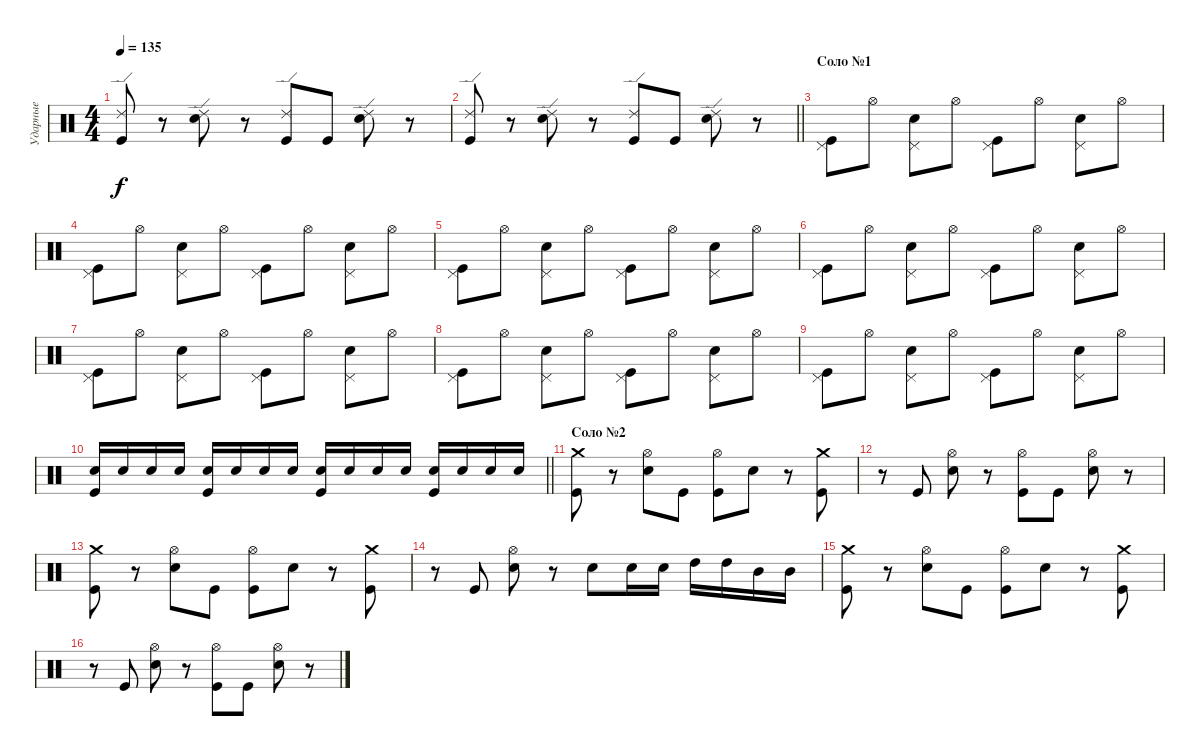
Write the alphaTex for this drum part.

\track ("Ударные" "Ударные") {instrument percussion}
\staff {score}
\articulation defaults
\ts (4 4)
\tempo 135
\clef neutral
\ks c
("Ride (edge) 2" "Kick (hit)").8{dy f} r.8 ("Ride (edge) 2" "Electric Snare (hit)").8 r.8 ("Ride (edge) 2" "Kick (hit)").8 "Kick (hit)".8 ("Ride (edge) 2" "Electric Snare (hit)").8 r.8 |
\barLineRight lightlight
("Ride (edge) 2" "Kick (hit)").8 r.8 ("Ride (edge) 2" "Electric Snare (hit)").8 r.8 ("Ride (edge) 2" "Kick (hit)").8 "Kick (hit)".8 ("Ride (edge) 2" "Electric Snare (hit)").8 r.8 |
\section ("" "Соло №1")
("Pedal Hi-Hat (hit)" "Kick (hit)").8 "Hi-Hat (open)".8 ("Pedal Hi-Hat (hit)" "Electric Snare (hit)").8 "Hi-Hat (open)".8 ("Pedal Hi-Hat (hit)" "Kick (hit)").8 "Hi-Hat (open)".8 ("Pedal Hi-Hat (hit)" "Electric Snare (hit)").8 "Hi-Hat (open)".8 |
("Pedal Hi-Hat (hit)" "Kick (hit)").8 "Hi-Hat (open)".8 ("Pedal Hi-Hat (hit)" "Electric Snare (hit)").8 "Hi-Hat (open)".8 ("Pedal Hi-Hat (hit)" "Kick (hit)").8 "Hi-Hat (open)".8 ("Pedal Hi-Hat (hit)" "Electric Snare (hit)").8 "Hi-Hat (open)".8 |
("Pedal Hi-Hat (hit)" "Kick (hit)").8 "Hi-Hat (open)".8 ("Pedal Hi-Hat (hit)" "Electric Snare (hit)").8 "Hi-Hat (open)".8 ("Pedal Hi-Hat (hit)" "Kick (hit)").8 "Hi-Hat (open)".8 ("Pedal Hi-Hat (hit)" "Electric Snare (hit)").8 "Hi-Hat (open)".8 |
("Pedal Hi-Hat (hit)" "Kick (hit)").8 "Hi-Hat (open)".8 ("Pedal Hi-Hat (hit)" "Electric Snare (hit)").8 "Hi-Hat (open)".8 ("Pedal Hi-Hat (hit)" "Kick (hit)").8 "Hi-Hat (open)".8 ("Pedal Hi-Hat (hit)" "Electric Snare (hit)").8 "Hi-Hat (open)".8 |
("Pedal Hi-Hat (hit)" "Kick (hit)").8 "Hi-Hat (open)".8 ("Pedal Hi-Hat (hit)" "Electric Snare (hit)").8 "Hi-Hat (open)".8 ("Pedal Hi-Hat (hit)" "Kick (hit)").8 "Hi-Hat (open)".8 ("Pedal Hi-Hat (hit)" "Electric Snare (hit)").8 "Hi-Hat (open)".8 |
("Pedal Hi-Hat (hit)" "Kick (hit)").8 "Hi-Hat (open)".8 ("Pedal Hi-Hat (hit)" "Electric Snare (hit)").8 "Hi-Hat (open)".8 ("Pedal Hi-Hat (hit)" "Kick (hit)").8 "Hi-Hat (open)".8 ("Pedal Hi-Hat (hit)" "Electric Snare (hit)").8 "Hi-Hat (open)".8 |
("Pedal Hi-Hat (hit)" "Kick (hit)").8 "Hi-Hat (open)".8 ("Pedal Hi-Hat (hit)" "Electric Snare (hit)").8 "Hi-Hat (open)".8 ("Pedal Hi-Hat (hit)" "Kick (hit)").8 "Hi-Hat (open)".8 ("Pedal Hi-Hat (hit)" "Electric Snare (hit)").8 "Hi-Hat (open)".8 |
\barLineRight lightlight
("Electric Snare (hit)" "Kick (hit)").16 "Electric Snare (hit)".16 "Electric Snare (hit)".16 "Electric Snare (hit)".16 ("Electric Snare (hit)" "Kick (hit)").16 "Electric Snare (hit)".16 "Electric Snare (hit)".16 "Electric Snare (hit)".16 ("Electric Snare (hit)" "Kick (hit)").16 "Electric Snare (hit)".16 "Electric Snare (hit)".16 "Electric Snare (hit)".16 ("Electric Snare (hit)" "Kick (hit)").16 "Electric Snare (hit)".16 "Electric Snare (hit)".16 "Electric Snare (hit)".16 |
\section ("" "Соло №2")
("Crash medium (hit)" "Kick (hit)").8 r.8 ("Hi-Hat (open)" "Electric Snare (hit)").8 "Kick (hit)".8 ("Hi-Hat (open)" "Kick (hit)").8 "Electric Snare (hit)".8 r.8 ("Crash medium (hit)" "Kick (hit)").8 |
r.8 "Kick (hit)".8 ("Hi-Hat (open)" "Electric Snare (hit)").8 r.8 ("Hi-Hat (open)" "Kick (hit)").8 "Kick (hit)".8 ("Hi-Hat (open)" "Electric Snare (hit)").8 r.8 |
("Crash medium (hit)" "Kick (hit)").8 r.8 ("Hi-Hat (open)" "Electric Snare (hit)").8 "Kick (hit)".8 ("Hi-Hat (open)" "Kick (hit)").8 "Electric Snare (hit)".8 r.8 ("Crash medium (hit)" "Kick (hit)").8 |
r.8 "Kick (hit)".8 ("Hi-Hat (open)" "Electric Snare (hit)").8 r.8 "Electric Snare (hit)".8 "Electric Snare (hit)".16 "Electric Snare (hit)".16 "High Tom (hit)".16 "High Tom (hit)".16 "Mid Tom (hit)".16 "Mid Tom (hit)".16 |
("Crash medium (hit)" "Kick (hit)").8 r.8 ("Hi-Hat (open)" "Electric Snare (hit)").8 "Kick (hit)".8 ("Hi-Hat (open)" "Kick (hit)").8 "Electric Snare (hit)".8 r.8 ("Crash medium (hit)" "Kick (hit)").8 |
r.8 "Kick (hit)".8 ("Hi-Hat (open)" "Electric Snare (hit)").8 r.8 ("Hi-Hat (open)" "Kick (hit)").8 "Kick (hit)".8 ("Hi-Hat (open)" "Electric Snare (hit)").8 r.8
